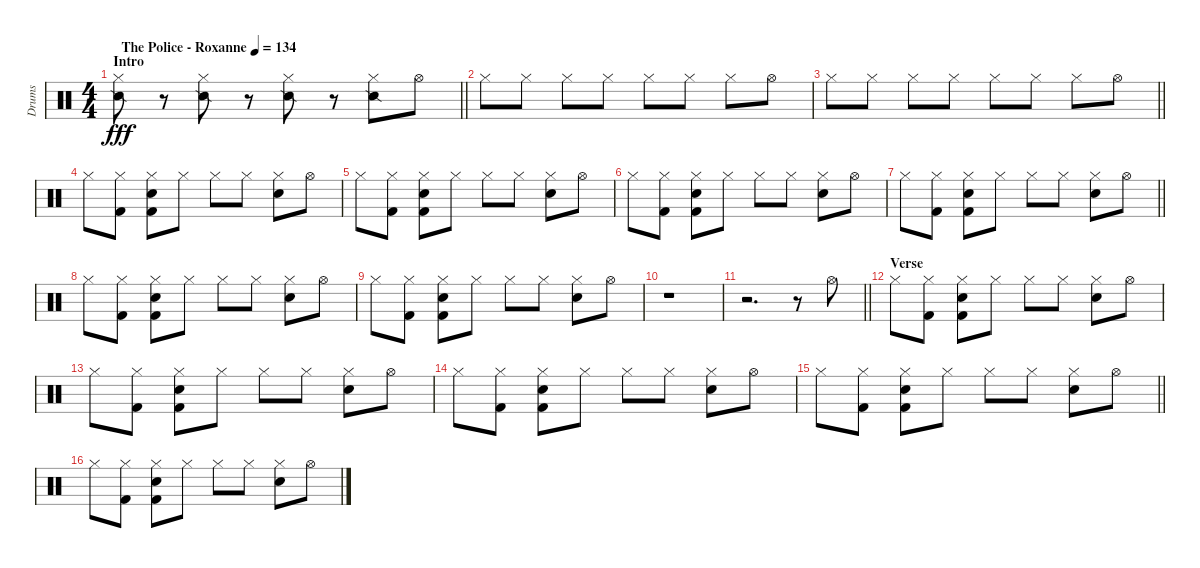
\track ("Drums" "Drums") {instrument percussion}
\staff {score}
\articulation defaults
\ts (4 4)
\section ("" "Intro")
\tempo (134 "The Police - Roxanne")
\clef neutral
\barLineRight lightlight
\ks c
("Hi-Hat (closed)" "Snare (side stick) 2").8{dy fff} r.8 ("Hi-Hat (closed)" "Snare (side stick) 2").8 r.8 ("Hi-Hat (closed)" "Snare (side stick) 2").8 r.8 ("Hi-Hat (closed)" "Snare (side stick) 2").8 "Hi-Hat (open)".8 |
"Hi-Hat (closed)".8 "Hi-Hat (closed)".8 "Hi-Hat (closed)".8 "Hi-Hat (closed)".8 "Hi-Hat (closed)".8 "Hi-Hat (closed)".8 "Hi-Hat (closed)".8 "Hi-Hat (open)".8 |
\barLineRight lightlight "Hi-Hat (closed)".8 "Hi-Hat (closed)".8 "Hi-Hat (closed)".8 "Hi-Hat (closed)".8 "Hi-Hat (closed)".8 "Hi-Hat (closed)".8 "Hi-Hat (closed)".8 "Hi-Hat (open)".8
|
"Hi-Hat (closed)".8 ("Hi-Hat (closed)" "Kick (hit) 2").8 ("Hi-Hat (closed)" "Electric Snare (hit)" "Kick (hit) 2").8 "Hi-Hat (closed)".8 "Hi-Hat (closed)".8 "Hi-Hat (closed)".8 ("Hi-Hat (closed)" "Electric Snare (hit)").8 "Hi-Hat (open)".8 |
"Hi-Hat (closed)".8 ("Hi-Hat (closed)" "Kick (hit) 2").8 ("Hi-Hat (closed)" "Electric Snare (hit)" "Kick (hit) 2").8 "Hi-Hat (closed)".8 "Hi-Hat (closed)".8 "Hi-Hat (closed)".8 ("Hi-Hat (closed)" "Electric Snare (hit)").8 "Hi-Hat (open)".8 |
"Hi-Hat (closed)".8 ("Hi-Hat (closed)" "Kick (hit) 2").8 ("Hi-Hat (closed)" "Electric Snare (hit)" "Kick (hit) 2").8 "Hi-Hat (closed)".8 "Hi-Hat (closed)".8 "Hi-Hat (closed)".8 ("Hi-Hat (closed)" "Electric Snare (hit)").8 "Hi-Hat (open)".8 |
\barLineRight lightlight "Hi-Hat (closed)".8
("Hi-Hat (closed)" "Kick (hit) 2").8 ("Hi-Hat (closed)" "Electric Snare (hit)" "Kick (hit) 2").8 "Hi-Hat (closed)".8 "Hi-Hat (closed)".8 "Hi-Hat (closed)".8 ("Hi-Hat (closed)" "Electric Snare (hit)").8 "Hi-Hat (open)".8 |
"Hi-Hat (closed)".8 ("Hi-Hat (closed)" "Kick (hit) 2").8 ("Hi-Hat (closed)" "Electric Snare (hit)" "Kick (hit) 2").8 "Hi-Hat (closed)".8 "Hi-Hat (closed)".8 "Hi-Hat (closed)".8 ("Hi-Hat (closed)" "Electric Snare (hit)").8 "Hi-Hat (open)".8 |
"Hi-Hat (closed)".8 ("Hi-Hat (closed)" "Kick (hit) 2").8 ("Hi-Hat (closed)" "Electric Snare (hit)" "Kick (hit) 2").8 "Hi-Hat (closed)".8 "Hi-Hat (closed)".8 "Hi-Hat (closed)".8 ("Hi-Hat (closed)" "Electric Snare (hit)").8 "Hi-Hat (open)".8 |
r.1 |
\barLineRight lightlight
r.2{d} r.8 "Hi-Hat (open)".8 |
\section ("" "Verse")
"Hi-Hat (closed)".8 ("Hi-Hat (closed)" "Kick (hit) 2").8 ("Hi-Hat (closed)" "Electric Snare (hit)" "Kick (hit) 2").8 "Hi-Hat (closed)".8 "Hi-Hat (closed)".8 "Hi-Hat (closed)".8 ("Hi-Hat (closed)" "Electric Snare (hit)").8 "Hi-Hat (open)".8 |
"Hi-Hat (closed)".8 ("Hi-Hat (closed)" "Kick (hit) 2").8 ("Hi-Hat (closed)" "Electric Snare (hit)" "Kick (hit) 2").8 "Hi-Hat (closed)".8 "Hi-Hat (closed)".8 "Hi-Hat (closed)".8 ("Hi-Hat (closed)" "Electric Snare (hit)").8 "Hi-Hat (open)".8 |
"Hi-Hat (closed)".8 ("Hi-Hat (closed)" "Kick (hit) 2").8 ("Hi-Hat (closed)" "Electric Snare (hit)" "Kick (hit) 2").8 "Hi-Hat (closed)".8 "Hi-Hat (closed)".8 "Hi-Hat (closed)".8 ("Hi-Hat (closed)" "Electric Snare (hit)").8 "Hi-Hat (open)".8 |
\barLineRight lightlight "Hi-Hat (closed)".8
("Hi-Hat (closed)" "Kick (hit) 2").8 ("Hi-Hat (closed)" "Electric Snare (hit)" "Kick (hit) 2").8 "Hi-Hat (closed)".8 "Hi-Hat (closed)".8 "Hi-Hat (closed)".8 ("Hi-Hat (closed)" "Electric Snare (hit)").8 "Hi-Hat (open)".8 |
"Hi-Hat (closed)".8 ("Hi-Hat (closed)" "Kick (hit) 2").8 ("Hi-Hat (closed)" "Electric Snare (hit)" "Kick (hit) 2").8 "Hi-Hat (closed)".8 "Hi-Hat (closed)".8 "Hi-Hat (closed)".8 ("Hi-Hat (closed)" "Electric Snare (hit)").8 "Hi-Hat (open)".8
